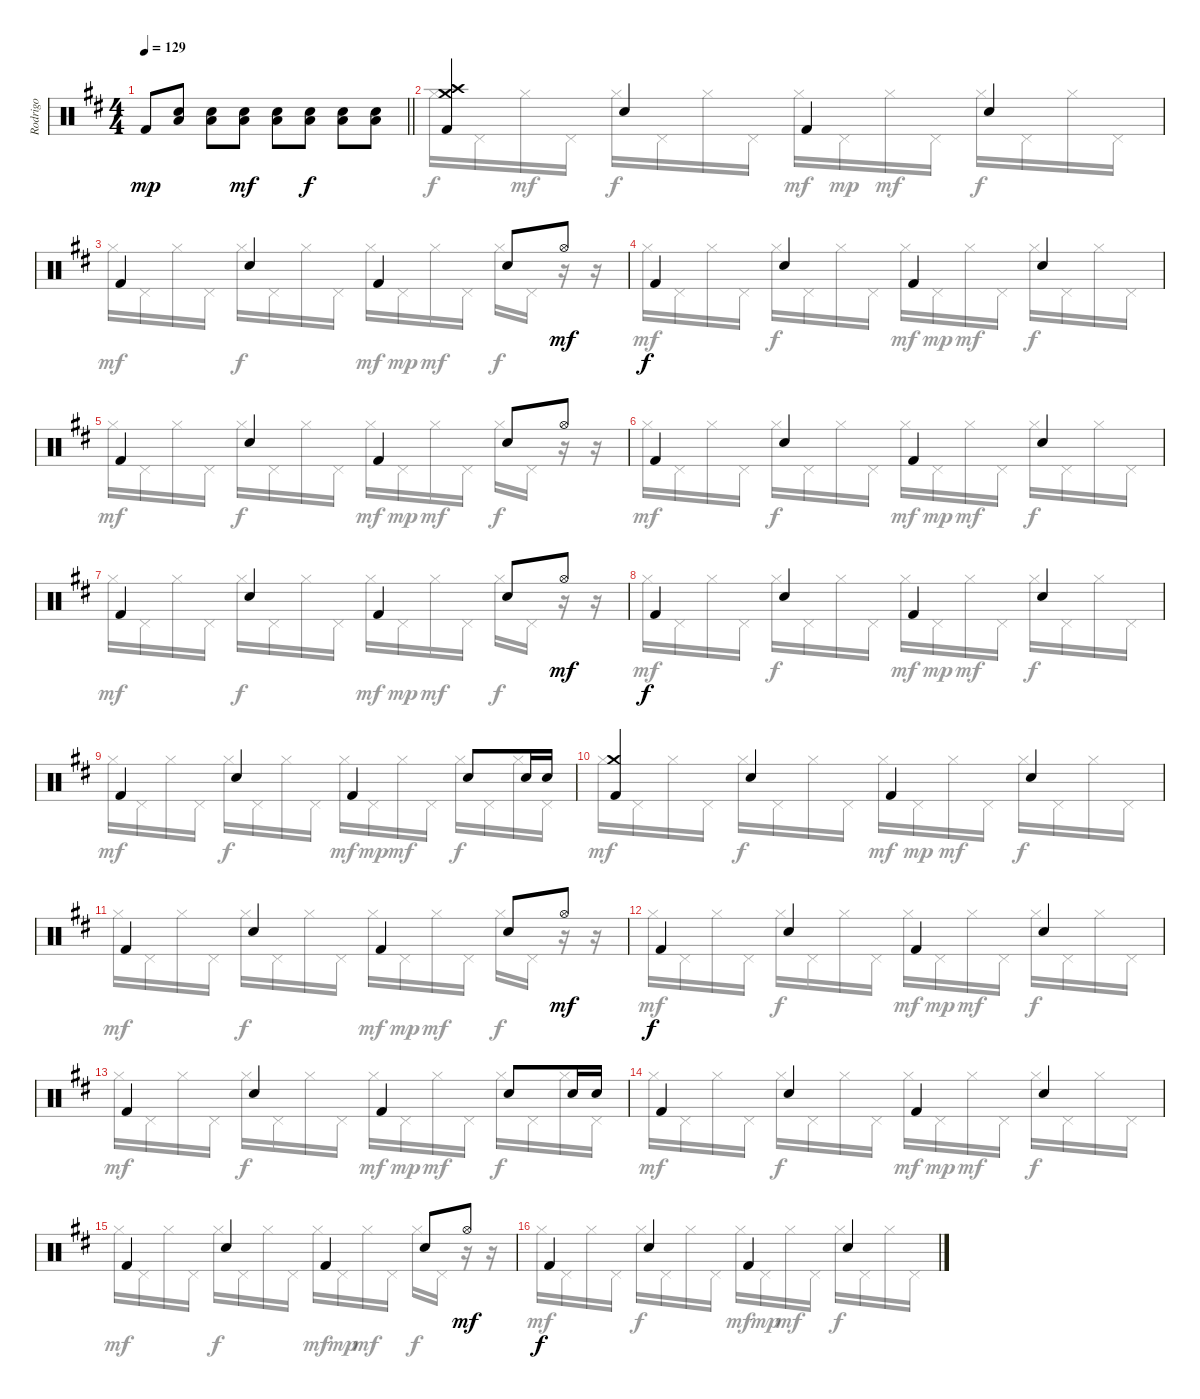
\track ("Rodrigo " "Rodrigo ") {instrument percussion}
\staff {score}
\articulation defaults
\voice
\ts (4 4)
\tempo 129
\clef neutral
\barLineRight lightlight
\ks d "Kick (hit) 2".8{dy mp}
("Electric Snare (hit)" "Low Floor Tom (hit)").8 ("Electric Snare (hit)" "Low Floor Tom (hit)").8 ("Electric Snare (hit)" "Low Floor Tom (hit)").8{dy mf} ("Electric Snare (hit)" "Low Floor Tom (hit)").8 ("Electric Snare (hit)" "Low Floor Tom (hit)").8{dy f} ("Electric Snare (hit)" "Low Floor Tom (hit)").8 ("Electric Snare (hit)" "Low Floor Tom (hit)").8 |
("Crash high (hit)" "Crash medium (hit)" "Kick (hit) 2").4 "Electric Snare (hit)".4 "Kick (hit) 2".4 "Electric Snare (hit)".4 |
"Kick (hit) 2".4 "Electric Snare (hit)".4 "Kick (hit) 2".4 "Electric Snare (hit)".8 "Hi-Hat (open)".8{dy mf} |
"Kick (hit) 2".4{dy f} "Electric Snare (hit)".4 "Kick (hit) 2".4 "Electric Snare (hit)".4 |
"Kick (hit) 2".4 "Electric Snare (hit)".4 "Kick (hit) 2".4 "Electric Snare (hit)".8 "Hi-Hat (open)".8 |
"Kick (hit) 2".4 "Electric Snare (hit)".4 "Kick (hit) 2".4 "Electric Snare (hit)".4 |
"Kick (hit) 2".4 "Electric Snare (hit)".4 "Kick (hit) 2".4 "Electric Snare (hit)".8 "Hi-Hat (open)".8{dy mf} |
"Kick (hit) 2".4{dy f} "Electric Snare (hit)".4 "Kick (hit) 2".4 "Electric Snare (hit)".4 |
"Kick (hit) 2".4 "Electric Snare (hit)".4 "Kick (hit) 2".4 "Electric Snare (hit)".8 "Electric Snare (hit)".16 "Electric Snare (hit)".16 |
("Crash medium (hit)" "Kick (hit) 2").4 "Electric Snare (hit)".4 "Kick (hit) 2".4 "Electric Snare (hit)".4 |
"Kick (hit) 2".4 "Electric Snare (hit)".4 "Kick (hit) 2".4 "Electric Snare (hit)".8 "Hi-Hat (open)".8{dy mf} |
"Kick (hit) 2".4{dy f} "Electric Snare (hit)".4 "Kick (hit) 2".4 "Electric Snare (hit)".4 |
"Kick (hit) 2".4 "Electric Snare (hit)".4 "Kick (hit) 2".4 "Electric Snare (hit)".8 "Electric Snare (hit)".16 "Electric Snare (hit)".16 |
"Kick (hit) 2".4 "Electric Snare (hit)".4 "Kick (hit) 2".4 "Electric Snare (hit)".4 |
"Kick (hit) 2".4 "Electric Snare (hit)".4 "Kick (hit) 2".4 "Electric Snare (hit)".8 "Hi-Hat (open)".8{dy mf} |
"Kick (hit) 2".4{dy f} "Electric Snare (hit)".4 "Kick (hit) 2".4 "Electric Snare (hit)".4
\voice
\clef neutral
\ottava regular
\simile none
\barLineRight lightlight
\ks d
|
"Hi-Hat (closed)".16 "Pedal Hi-Hat (hit)".16 "Hi-Hat (closed)".16{dy mf} "Pedal Hi-Hat (hit)".16 "Hi-Hat (closed)".16{dy f} "Pedal Hi-Hat (hit)".16 "Hi-Hat (closed)".16 "Pedal Hi-Hat (hit)".16 "Hi-Hat (closed)".16{dy mf} "Pedal Hi-Hat (hit)".16{dy mp} "Hi-Hat (closed)".16{dy mf} "Pedal Hi-Hat (hit)".16 "Hi-Hat (closed)".16{dy f} "Pedal Hi-Hat (hit)".16 "Hi-Hat (closed)".16 "Pedal Hi-Hat (hit)".16 |
"Hi-Hat (closed)".16{dy mf} "Pedal Hi-Hat (hit)".16 "Hi-Hat (closed)".16 "Pedal Hi-Hat (hit)".16 "Hi-Hat (closed)".16{dy f} "Pedal Hi-Hat (hit)".16 "Hi-Hat (closed)".16 "Pedal Hi-Hat (hit)".16 "Hi-Hat (closed)".16{dy mf} "Pedal Hi-Hat (hit)".16{dy mp} "Hi-Hat (closed)".16{dy mf} "Pedal Hi-Hat (hit)".16 "Hi-Hat (closed)".16{dy f} "Pedal Hi-Hat (hit)".16 r.16 r.16 |
"Hi-Hat (closed)".16{dy mf} "Pedal Hi-Hat (hit)".16 "Hi-Hat (closed)".16 "Pedal Hi-Hat (hit)".16 "Hi-Hat (closed)".16{dy f} "Pedal Hi-Hat (hit)".16 "Hi-Hat (closed)".16 "Pedal Hi-Hat (hit)".16 "Hi-Hat (closed)".16{dy mf} "Pedal Hi-Hat (hit)".16{dy mp} "Hi-Hat (closed)".16{dy mf} "Pedal Hi-Hat (hit)".16 "Hi-Hat (closed)".16{dy f} "Pedal Hi-Hat (hit)".16 "Hi-Hat (closed)".16 "Pedal Hi-Hat (hit)".16 |
"Hi-Hat (closed)".16{dy mf} "Pedal Hi-Hat (hit)".16 "Hi-Hat (closed)".16 "Pedal Hi-Hat (hit)".16 "Hi-Hat (closed)".16{dy f} "Pedal Hi-Hat (hit)".16 "Hi-Hat (closed)".16 "Pedal Hi-Hat (hit)".16 "Hi-Hat (closed)".16{dy mf} "Pedal Hi-Hat (hit)".16{dy mp} "Hi-Hat (closed)".16{dy mf} "Pedal Hi-Hat (hit)".16 "Hi-Hat (closed)".16{dy f} "Pedal Hi-Hat (hit)".16 r.16 r.16 |
"Hi-Hat (closed)".16{dy mf} "Pedal Hi-Hat (hit)".16 "Hi-Hat (closed)".16 "Pedal Hi-Hat (hit)".16 "Hi-Hat (closed)".16{dy f} "Pedal Hi-Hat (hit)".16 "Hi-Hat (closed)".16 "Pedal Hi-Hat (hit)".16 "Hi-Hat (closed)".16{dy mf} "Pedal Hi-Hat (hit)".16{dy mp} "Hi-Hat (closed)".16{dy mf} "Pedal Hi-Hat (hit)".16 "Hi-Hat (closed)".16{dy f} "Pedal Hi-Hat (hit)".16 "Hi-Hat (closed)".16 "Pedal Hi-Hat (hit)".16 |
"Hi-Hat (closed)".16{dy mf} "Pedal Hi-Hat (hit)".16 "Hi-Hat (closed)".16 "Pedal Hi-Hat (hit)".16 "Hi-Hat (closed)".16{dy f} "Pedal Hi-Hat (hit)".16 "Hi-Hat (closed)".16 "Pedal Hi-Hat (hit)".16 "Hi-Hat (closed)".16{dy mf} "Pedal Hi-Hat (hit)".16{dy mp} "Hi-Hat (closed)".16{dy mf} "Pedal Hi-Hat (hit)".16 "Hi-Hat (closed)".16{dy f} "Pedal Hi-Hat (hit)".16 r.16 r.16 |
"Hi-Hat (closed)".16{dy mf} "Pedal Hi-Hat (hit)".16 "Hi-Hat (closed)".16 "Pedal Hi-Hat (hit)".16 "Hi-Hat (closed)".16{dy f} "Pedal Hi-Hat (hit)".16 "Hi-Hat (closed)".16 "Pedal Hi-Hat (hit)".16 "Hi-Hat (closed)".16{dy mf} "Pedal Hi-Hat (hit)".16{dy mp} "Hi-Hat (closed)".16{dy mf} "Pedal Hi-Hat (hit)".16 "Hi-Hat (closed)".16{dy f} "Pedal Hi-Hat (hit)".16 "Hi-Hat (closed)".16 "Pedal Hi-Hat (hit)".16 |
"Hi-Hat (closed)".16{dy mf} "Pedal Hi-Hat (hit)".16 "Hi-Hat (closed)".16 "Pedal Hi-Hat (hit)".16 "Hi-Hat (closed)".16{dy f} "Pedal Hi-Hat (hit)".16 "Hi-Hat (closed)".16 "Pedal Hi-Hat (hit)".16 "Hi-Hat (closed)".16{dy mf} "Pedal Hi-Hat (hit)".16{dy mp} "Hi-Hat (closed)".16{dy mf} "Pedal Hi-Hat (hit)".16 "Hi-Hat (closed)".16{dy f} "Pedal Hi-Hat (hit)".16 "Hi-Hat (closed)".16 "Pedal Hi-Hat (hit)".16 |
"Hi-Hat (closed)".16{dy mf} "Pedal Hi-Hat (hit)".16 "Hi-Hat (closed)".16 "Pedal Hi-Hat (hit)".16 "Hi-Hat (closed)".16{dy f} "Pedal Hi-Hat (hit)".16 "Hi-Hat (closed)".16 "Pedal Hi-Hat (hit)".16 "Hi-Hat (closed)".16{dy mf} "Pedal Hi-Hat (hit)".16{dy mp} "Hi-Hat (closed)".16{dy mf} "Pedal Hi-Hat (hit)".16 "Hi-Hat (closed)".16{dy f} "Pedal Hi-Hat (hit)".16 "Hi-Hat (closed)".16 "Pedal Hi-Hat (hit)".16 |
"Hi-Hat (closed)".16{dy mf} "Pedal Hi-Hat (hit)".16 "Hi-Hat (closed)".16 "Pedal Hi-Hat (hit)".16 "Hi-Hat (closed)".16{dy f} "Pedal Hi-Hat (hit)".16 "Hi-Hat (closed)".16 "Pedal Hi-Hat (hit)".16 "Hi-Hat (closed)".16{dy mf} "Pedal Hi-Hat (hit)".16{dy mp} "Hi-Hat (closed)".16{dy mf} "Pedal Hi-Hat (hit)".16 "Hi-Hat (closed)".16{dy f} "Pedal Hi-Hat (hit)".16 r.16 r.16 |
"Hi-Hat (closed)".16{dy mf} "Pedal Hi-Hat (hit)".16 "Hi-Hat (closed)".16 "Pedal Hi-Hat (hit)".16 "Hi-Hat (closed)".16{dy f} "Pedal Hi-Hat (hit)".16 "Hi-Hat (closed)".16 "Pedal Hi-Hat (hit)".16 "Hi-Hat (closed)".16{dy mf} "Pedal Hi-Hat (hit)".16{dy mp} "Hi-Hat (closed)".16{dy mf} "Pedal Hi-Hat (hit)".16 "Hi-Hat (closed)".16{dy f} "Pedal Hi-Hat (hit)".16 "Hi-Hat (closed)".16 "Pedal Hi-Hat (hit)".16 |
"Hi-Hat (closed)".16{dy mf} "Pedal Hi-Hat (hit)".16 "Hi-Hat (closed)".16 "Pedal Hi-Hat (hit)".16 "Hi-Hat (closed)".16{dy f} "Pedal Hi-Hat (hit)".16 "Hi-Hat (closed)".16 "Pedal Hi-Hat (hit)".16 "Hi-Hat (closed)".16{dy mf} "Pedal Hi-Hat (hit)".16{dy mp} "Hi-Hat (closed)".16{dy mf} "Pedal Hi-Hat (hit)".16 "Hi-Hat (closed)".16{dy f} "Pedal Hi-Hat (hit)".16 "Hi-Hat (closed)".16 "Pedal Hi-Hat (hit)".16 |
"Hi-Hat (closed)".16{dy mf} "Pedal Hi-Hat (hit)".16 "Hi-Hat (closed)".16 "Pedal Hi-Hat (hit)".16 "Hi-Hat (closed)".16{dy f} "Pedal Hi-Hat (hit)".16 "Hi-Hat (closed)".16 "Pedal Hi-Hat (hit)".16 "Hi-Hat (closed)".16{dy mf} "Pedal Hi-Hat (hit)".16{dy mp} "Hi-Hat (closed)".16{dy mf} "Pedal Hi-Hat (hit)".16 "Hi-Hat (closed)".16{dy f} "Pedal Hi-Hat (hit)".16 "Hi-Hat (closed)".16 "Pedal Hi-Hat (hit)".16 |
"Hi-Hat (closed)".16{dy mf} "Pedal Hi-Hat (hit)".16 "Hi-Hat (closed)".16 "Pedal Hi-Hat (hit)".16 "Hi-Hat (closed)".16{dy f} "Pedal Hi-Hat (hit)".16 "Hi-Hat (closed)".16 "Pedal Hi-Hat (hit)".16 "Hi-Hat (closed)".16{dy mf} "Pedal Hi-Hat (hit)".16{dy mp} "Hi-Hat (closed)".16{dy mf} "Pedal Hi-Hat (hit)".16 "Hi-Hat (closed)".16{dy f} "Pedal Hi-Hat (hit)".16 r.16 r.16 |
"Hi-Hat (closed)".16{dy mf} "Pedal Hi-Hat (hit)".16 "Hi-Hat (closed)".16 "Pedal Hi-Hat (hit)".16 "Hi-Hat (closed)".16{dy f} "Pedal Hi-Hat (hit)".16 "Hi-Hat (closed)".16 "Pedal Hi-Hat (hit)".16 "Hi-Hat (closed)".16{dy mf} "Pedal Hi-Hat (hit)".16{dy mp} "Hi-Hat (closed)".16{dy mf} "Pedal Hi-Hat (hit)".16 "Hi-Hat (closed)".16{dy f} "Pedal Hi-Hat (hit)".16 "Hi-Hat (closed)".16 "Pedal Hi-Hat (hit)".16
